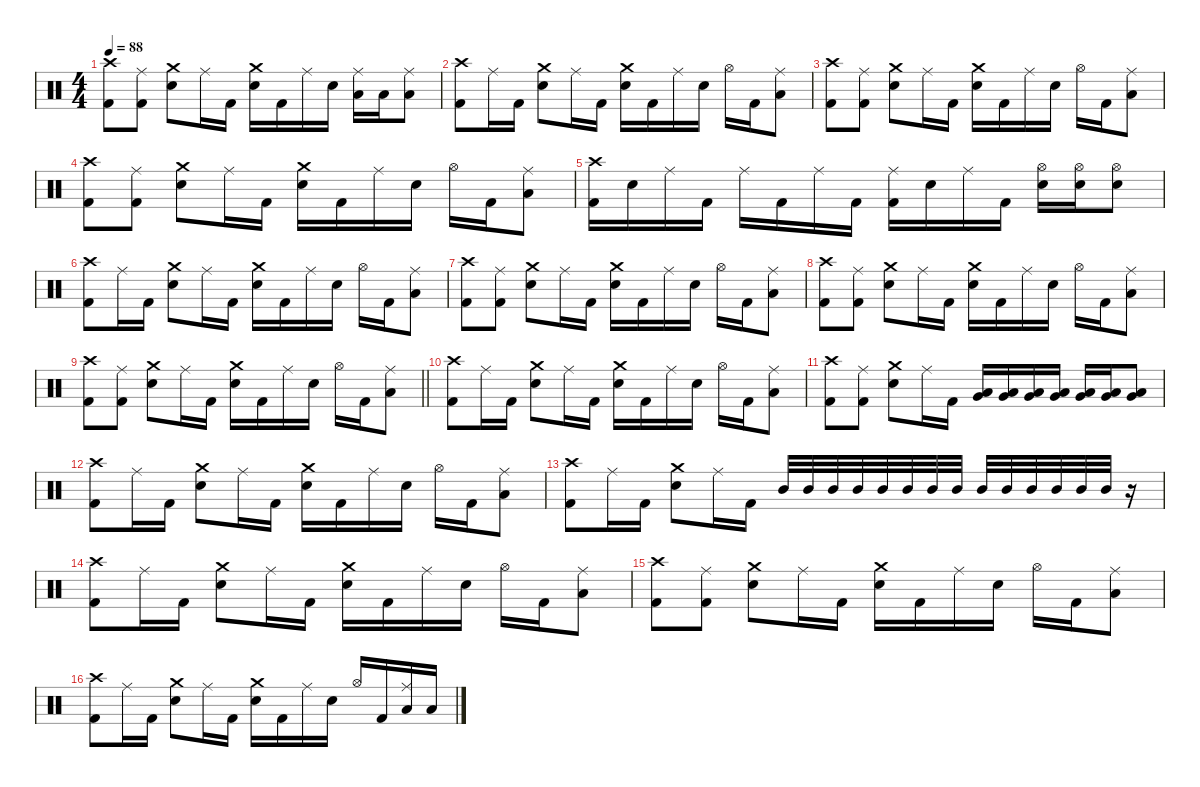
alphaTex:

\defaultSystemsLayout 4
\hideDynamics
\bracketExtendMode nobrackets
\singleTrackTrackNamePolicy hidden
\multiTrackTrackNamePolicy hidden
\firstSystemTrackNameMode fullname
\firstSystemTrackNameOrientation horizontal
\otherSystemsTrackNameOrientation horizontal
\track ("Drums" "drm.") {instrument percussion}
\staff {score}
\articulation defaults
\ts (4 4)
\tempo 88
\clef neutral
\ks c
("Crash high (hit)" "Kick (hit) 2").8{dy f beam Down} ("Ride (middle)" "Kick (hit) 2").8{beam Down} ("Crash medium (hit)" "Snare (hit) 2").8{beam Down} "Ride (middle)".16{beam Down} "Kick (hit) 2".16{beam Down} ("Crash medium (hit)" "Snare (hit) 2").16{beam Down} "Kick (hit) 2".16{beam Down} "Ride (middle)".16{beam Down} "Snare (hit) 2".16{beam Down} ("Ride (middle)" "Low Tom (hit)").16{beam Down} "Low Tom (hit)".16{beam Down} ("Ride (middle)" "Low Tom (hit)").8{beam Down} |
("Crash high (hit)" "Kick (hit) 2").8{beam Down} "Ride (middle)".16{beam Down} "Kick (hit) 2".16{beam Down} ("Crash medium (hit)" "Snare (hit) 2").8{beam Down} "Ride (middle)".16{beam Down} "Kick (hit) 2".16{beam Down} ("Crash medium (hit)" "Snare (hit) 2").16{beam Down} "Kick (hit) 2".16{beam Down} "Ride (middle)".16{beam Down} "Snare (hit) 2".16{beam Down} "Hi-Hat (open)".16{beam Down} "Kick (hit) 2".16{beam Down} ("Ride (middle)" "Low Tom (hit)").8{beam Down} |
("Crash high (hit)" "Kick (hit) 2").8{beam Down} ("Ride (middle)" "Kick (hit) 2").8{beam Down} ("Crash medium (hit)" "Snare (hit) 2").8{beam Down} "Ride (middle)".16{beam Down} "Kick (hit) 2".16{beam Down} ("Crash medium (hit)" "Snare (hit) 2").16{beam Down} "Kick (hit) 2".16{beam Down} "Ride (middle)".16{beam Down} "Snare (hit) 2".16{beam Down} "Hi-Hat (open)".16{beam Down} "Kick (hit) 2".16{beam Down} ("Ride (middle)" "Low Tom (hit)").8{beam Down} |
("Crash high (hit)" "Kick (hit) 2").8{beam Down} ("Ride (middle)" "Kick (hit) 2").8{beam Down} ("Crash medium (hit)" "Snare (hit) 2").8{beam Down} "Ride (middle)".16{beam Down} "Kick (hit) 2".16{beam Down} ("Crash medium (hit)" "Snare (hit) 2").16{beam Down} "Kick (hit) 2".16{beam Down} "Ride (middle)".16{beam Down} "Snare (hit) 2".16{beam Down} "Hi-Hat (open)".16{beam Down} "Kick (hit) 2".16{beam Down} ("Ride (middle)" "Low Tom (hit)").8{beam Down} |
("Crash high (hit)" "Kick (hit) 2").16{beam Down} "Snare (hit) 2".16{beam Down} "Ride (middle)".16{beam Down} "Kick (hit) 2".16{beam Down} "Ride (middle)".16{beam Down} "Kick (hit) 2".16{beam Down} "Ride (middle)".16{beam Down} "Kick (hit) 2".16{beam Down} ("Ride (middle)" "Kick (hit) 2").16{beam Down} "Snare (hit) 2".16{beam Down} "Ride (middle)".16{beam Down} "Kick (hit) 2".16{beam Down} ("Hi-Hat (open)" "Snare (hit) 2").16{beam Down} ("Hi-Hat (open)" "Snare (hit) 2").16{beam Down} ("Hi-Hat (open)" "Snare (hit) 2").8{beam Down} |
("Crash high (hit)" "Kick (hit) 2").8{beam Down} "Ride (middle)".16{beam Down} "Kick (hit) 2".16{beam Down} ("Crash medium (hit)" "Snare (hit) 2").8{beam Down} "Ride (middle)".16{beam Down} "Kick (hit) 2".16{beam Down} ("Crash medium (hit)" "Snare (hit) 2").16{beam Down} "Kick (hit) 2".16{beam Down} "Ride (middle)".16{beam Down} "Snare (hit) 2".16{beam Down} "Hi-Hat (open)".16{beam Down} "Kick (hit) 2".16{beam Down} ("Ride (middle)" "Low Tom (hit)").8{beam Down} |
("Crash high (hit)" "Kick (hit) 2").8{beam Down} ("Ride (middle)" "Kick (hit) 2").8{beam Down} ("Crash medium (hit)" "Snare (hit) 2").8{beam Down} "Ride (middle)".16{beam Down} "Kick (hit) 2".16{beam Down} ("Crash medium (hit)" "Snare (hit) 2").16{beam Down} "Kick (hit) 2".16{beam Down} "Ride (middle)".16{beam Down} "Snare (hit) 2".16{beam Down} "Hi-Hat (open)".16{beam Down} "Kick (hit) 2".16{beam Down} ("Ride (middle)" "Low Tom (hit)").8{beam Down} |
("Crash high (hit)" "Kick (hit) 2").8{beam Down} ("Ride (middle)" "Kick (hit) 2").8{beam Down} ("Crash medium (hit)" "Snare (hit) 2").8{beam Down} "Ride (middle)".16{beam Down} "Kick (hit) 2".16{beam Down} ("Crash medium (hit)" "Snare (hit) 2").16{beam Down} "Kick (hit) 2".16{beam Down} "Ride (middle)".16{beam Down} "Snare (hit) 2".16{beam Down} "Hi-Hat (open)".16{beam Down} "Kick (hit) 2".16{beam Down} ("Ride (middle)" "Low Tom (hit)").8{beam Down} |
\barLineRight lightlight
("Crash high (hit)" "Kick (hit) 2").8{beam Down} ("Ride (middle)" "Kick (hit) 2").8{beam Down} ("Crash medium (hit)" "Snare (hit) 2").8{beam Down} "Ride (middle)".16{beam Down} "Kick (hit) 2".16{beam Down} ("Crash medium (hit)" "Snare (hit) 2").16{beam Down} "Kick (hit) 2".16{beam Down} "Ride (middle)".16{beam Down} "Snare (hit) 2".16{beam Down} "Hi-Hat (open)".16{beam Down} "Kick (hit) 2".16{beam Down} ("Ride (middle)" "Low Tom (hit)").8{beam Down} |
("Crash high (hit)" "Kick (hit) 2").8{beam Down} "Ride (middle)".16{beam Down} "Kick (hit) 2".16{beam Down} ("Crash medium (hit)" "Snare (hit) 2").8{beam Down} "Ride (middle)".16{beam Down} "Kick (hit) 2".16{beam Down} ("Crash medium (hit)" "Snare (hit) 2").16{beam Down} "Kick (hit) 2".16{beam Down} "Ride (middle)".16{beam Down} "Snare (hit) 2".16{beam Down} "Hi-Hat (open)".16{beam Down} "Kick (hit) 2".16{beam Down} ("Ride (middle)" "Low Tom (hit)").8{beam Down} |
("Crash high (hit)" "Kick (hit) 2").8{beam Down} ("Ride (middle)" "Kick (hit) 2").8{beam Down} ("Crash medium (hit)" "Snare (hit) 2").8{beam Down} "Ride (middle)".16{beam Down} "Kick (hit) 2".16{beam Down} ("Low Tom (hit)" "Very Low Tom (hit)").16{beam Up} ("Low Tom (hit)" "Very Low Tom (hit)").16{beam Up} ("Low Tom (hit)" "Very Low Tom (hit)").16{beam Up} ("Low Tom (hit)" "Very Low Tom (hit)").16{beam Up} ("Low Tom (hit)" "Very Low Tom (hit)").16{beam Up} ("Low Tom (hit)" "Very Low Tom (hit)").16{beam Up} ("Low Tom (hit)" "Very Low Tom (hit)").8{beam Up} |
("Crash high (hit)" "Kick (hit) 2").8{beam Down} "Ride (middle)".16{beam Down} "Kick (hit) 2".16{beam Down} ("Crash medium (hit)" "Snare (hit) 2").8{beam Down} "Ride (middle)".16{beam Down} "Kick (hit) 2".16{beam Down} ("Crash medium (hit)" "Snare (hit) 2").16{beam Down} "Kick (hit) 2".16{beam Down} "Ride (middle)".16{beam Down} "Snare (hit) 2".16{beam Down} "Hi-Hat (open)".16{beam Down} "Kick (hit) 2".16{beam Down} ("Ride (middle)" "Low Tom (hit)").8{beam Down} |
("Crash high (hit)" "Kick (hit) 2").8{beam Down} "Ride (middle)".16{beam Down} "Kick (hit) 2".16{beam Down} ("Crash medium (hit)" "Snare (hit) 2").8{beam Down} "Ride (middle)".16{beam Down} "Kick (hit) 2".16{beam Down} "Mid Tom (hit)".32{beam Up} "Mid Tom (hit)".32{beam Up} "Mid Tom (hit)".32{beam Up} "Mid Tom (hit)".32{beam Up} "Mid Tom (hit)".32{beam Up} "Mid Tom (hit)".32{beam Up} "Mid Tom (hit)".32{beam Up} "Mid Tom (hit)".32{beam Up} "Mid Tom (hit)".32{beam Up} "Mid Tom (hit)".32{beam Up} "Mid Tom (hit)".32{beam Up} "Mid Tom (hit)".32{beam Up} "Mid Tom (hit)".32{beam Up} "Mid Tom (hit)".32{beam Up} r.16{beam Up} |
("Crash high (hit)" "Kick (hit) 2").8{beam Down} "Ride (middle)".16{beam Down} "Kick (hit) 2".16{beam Down} ("Crash medium (hit)" "Snare (hit) 2").8{beam Down} "Ride (middle)".16{beam Down} "Kick (hit) 2".16{beam Down} ("Crash medium (hit)" "Snare (hit) 2").16{beam Down} "Kick (hit) 2".16{beam Down} "Ride (middle)".16{beam Down} "Snare (hit) 2".16{beam Down} "Hi-Hat (open)".16{beam Down} "Kick (hit) 2".16{beam Down} ("Ride (middle)" "Low Tom (hit)").8{beam Down} |
("Crash high (hit)" "Kick (hit) 2").8{beam Down} ("Ride (middle)" "Kick (hit) 2").8{beam Down} ("Crash medium (hit)" "Snare (hit) 2").8{beam Down} "Ride (middle)".16{beam Down} "Kick (hit) 2".16{beam Down} ("Crash medium (hit)" "Snare (hit) 2").16{beam Down} "Kick (hit) 2".16{beam Down} "Ride (middle)".16{beam Down} "Snare (hit) 2".16{beam Down} "Hi-Hat (open)".16{beam Down} "Kick (hit) 2".16{beam Down} ("Ride (middle)" "Low Tom (hit)").8{beam Down} |
("Crash high (hit)" "Kick (hit) 2").8{beam Down} "Ride (middle)".16{beam Down} "Kick (hit) 2".16{beam Down} ("Crash medium (hit)" "Snare (hit) 2").8{beam Down} "Ride (middle)".16{beam Down} "Kick (hit) 2".16{beam Down} ("Crash medium (hit)" "Snare (hit) 2").16{beam Down} "Kick (hit) 2".16{beam Down} "Ride (middle)".16{beam Down} "Snare (hit) 2".16{beam Down} "Hi-Hat (open)".16{beam Up} "Kick (hit) 2".16{beam Up} ("Ride (middle)" "Low Tom (hit)").16{beam Up} "Low Tom (hit)".16{beam Up}
